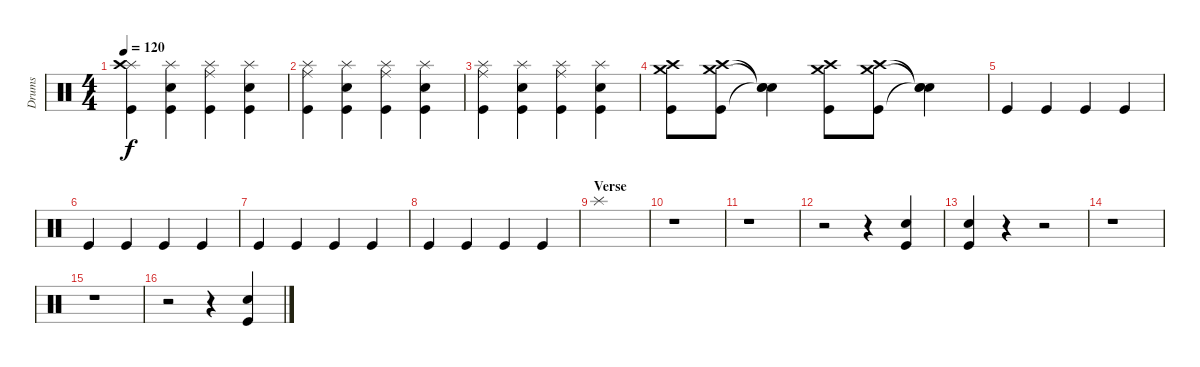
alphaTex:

\track ("Drums" "Drums") {instrument percussion}
\staff {score}
\articulation defaults
\ts (4 4)
\tempo 120
\clef neutral
\ks c
("Splash (hit)" "Crash high (hit)" "Kick (hit)").4{dy f} ("Splash (hit)" "Snare (hit) 2" "Kick (hit)").4 ("Splash (hit)" "Ride (middle)" "Kick (hit)").4 ("Splash (hit)" "Snare (hit) 2" "Kick (hit)").4 |
("Splash (hit)" "Ride (middle)" "Kick (hit)").4 ("Splash (hit)" "Snare (hit) 2" "Kick (hit)").4 ("Splash (hit)" "Ride (middle)" "Kick (hit)").4 ("Splash (hit)" "Snare (hit) 2" "Kick (hit)").4 |
("Splash (hit)" "Ride (middle)" "Kick (hit)").4 ("Splash (hit)" "Snare (hit) 2" "Kick (hit)").4 ("Splash (hit)" "Ride (middle)" "Kick (hit)").4 ("Splash (hit)" "Snare (hit) 2" "Kick (hit)").4 |
("Crash medium (hit)" "Crash high (hit)" "Kick (hit)").8 ("Crash medium (hit)" "Crash high (hit)" "Kick (hit)").8 ("Snare (hit)"{t} "Snare (hit)"{t} "Snare (hit)"{t}).4 ("Crash medium (hit)" "Crash high (hit)" "Kick (hit)").8 ("Crash medium (hit)" "Crash high (hit)" "Kick (hit)").8 ("Snare (hit)"{t} "Snare (hit)"{t} "Snare (hit)"{t}).4 |
"Kick (hit)".4 "Kick (hit)".4 "Kick (hit)".4 "Kick (hit)".4 |
"Kick (hit)".4 "Kick (hit)".4 "Kick (hit)".4 "Kick (hit)".4 |
"Kick (hit)".4 "Kick (hit)".4 "Kick (hit)".4 "Kick (hit)".4 |
"Kick (hit)".4 "Kick (hit)".4 "Kick (hit)".4 "Kick (hit)".4 |
\section ("" "Verse")
"Splash (hit)".1 |
r.1 |
r.1 |
r.2 r.4 ("Snare (hit) 2" "Kick (hit)").4 |
("Snare (hit) 2" "Kick (hit)").4 r.4 r.2 |
r.1 |
r.1 |
r.2 r.4 ("Snare (hit) 2" "Kick (hit)").4
